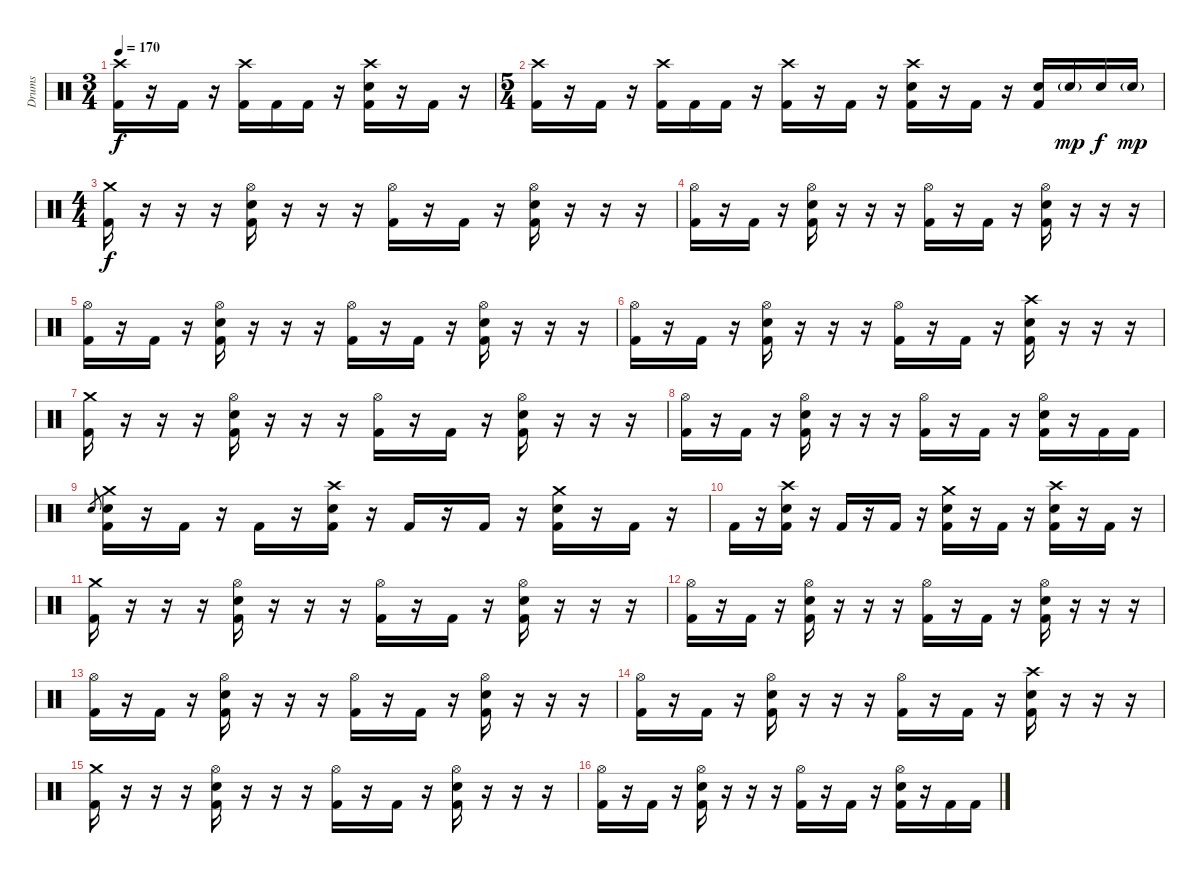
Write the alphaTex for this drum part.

\track ("Drums" "Drums") {instrument percussion}
\staff {score}
\articulation defaults
\ts (3 4)
\tempo 170
\clef neutral
\ks c
("Crash high (hit)" "Kick (hit) 2").16{dy f} r.16 "Kick (hit) 2".16 r.16 ("Crash high (hit)" "Kick (hit) 2").16 "Kick (hit) 2".16 "Kick (hit) 2".16 r.16 ("Crash high (hit)" "Electric Snare (hit)" "Kick (hit) 2").16 r.16 "Kick (hit) 2".16 r.16 |
\ts (5 4)
("Crash high (hit)" "Kick (hit) 2").16 r.16 "Kick (hit) 2".16 r.16 ("Crash high (hit)" "Kick (hit) 2").16 "Kick (hit) 2".16 "Kick (hit) 2".16 r.16 ("Crash high (hit)" "Kick (hit) 2").16 r.16 "Kick (hit) 2".16 r.16 ("Crash high (hit)" "Electric Snare (hit)" "Kick (hit) 2").16 r.16 "Kick (hit) 2".16 r.16 ("Electric Snare (hit)" "Kick (hit) 2").16 "Electric Snare (hit)"{g}.16{dy mp} "Electric Snare (hit)".16{dy f} "Electric Snare (hit)"{g}.16{dy mp} |
\ts (4 4)
\section ("" "")
("Crash medium (hit)" "Kick (hit) 2").16{dy f} r.16 r.16 r.16 ("Hi-Hat (open)" "Electric Snare (hit)" "Kick (hit) 2").16 r.16 r.16 r.16 ("Hi-Hat (open)" "Kick (hit) 2").16 r.16 "Kick (hit) 2".16 r.16 ("Hi-Hat (open)" "Electric Snare (hit)" "Kick (hit) 2").16 r.16 r.16 r.16 |
("Hi-Hat (open)" "Kick (hit) 2").16 r.16 "Kick (hit) 2".16 r.16 ("Hi-Hat (open)" "Electric Snare (hit)" "Kick (hit) 2").16 r.16 r.16 r.16 ("Hi-Hat (open)" "Kick (hit) 2").16 r.16 "Kick (hit) 2".16 r.16 ("Hi-Hat (open)" "Electric Snare (hit)" "Kick (hit) 2").16 r.16 r.16 r.16 |
("Hi-Hat (open)" "Kick (hit) 2").16 r.16 "Kick (hit) 2".16 r.16 ("Hi-Hat (open)" "Electric Snare (hit)" "Kick (hit) 2").16 r.16 r.16 r.16 ("Hi-Hat (open)" "Kick (hit) 2").16 r.16 "Kick (hit) 2".16 r.16 ("Hi-Hat (open)" "Electric Snare (hit)" "Kick (hit) 2").16 r.16 r.16 r.16 |
("Hi-Hat (open)" "Kick (hit) 2").16 r.16 "Kick (hit) 2".16 r.16 ("Hi-Hat (open)" "Electric Snare (hit)" "Kick (hit) 2").16 r.16 r.16 r.16 ("Hi-Hat (open)" "Kick (hit) 2").16 r.16 "Kick (hit) 2".16 r.16 ("Crash high (hit)" "Electric Snare (hit)" "Kick (hit) 2").16 r.16 r.16 r.16 |
("Crash medium (hit)" "Kick (hit) 2").16 r.16 r.16 r.16 ("Hi-Hat (open)" "Electric Snare (hit)" "Kick (hit) 2").16 r.16 r.16 r.16 ("Hi-Hat (open)" "Kick (hit) 2").16 r.16 "Kick (hit) 2".16 r.16 ("Hi-Hat (open)" "Electric Snare (hit)" "Kick (hit) 2").16 r.16 r.16 r.16 |
("Hi-Hat (open)" "Kick (hit) 2").16 r.16 "Kick (hit) 2".16 r.16 ("Hi-Hat (open)" "Electric Snare (hit)" "Kick (hit) 2").16 r.16 r.16 r.16 ("Hi-Hat (open)" "Kick (hit) 2").16 r.16 "Kick (hit) 2".16 r.16 ("Hi-Hat (open)" "Electric Snare (hit)" "Kick (hit) 2").16 r.16 "Kick (hit) 2".16 "Kick (hit) 2".16 |
"Electric Snare (hit)".8{gr} ("Crash medium (hit)" "Electric Snare (hit)" "Kick (hit) 2").16 r.16 "Kick (hit) 2".16 r.16 "Kick (hit) 2".16 r.16 ("Crash high (hit)" "Electric Snare (hit)" "Kick (hit) 2").16 r.16 "Kick (hit) 2".16 r.16 "Kick (hit) 2".16 r.16 ("Crash medium (hit)" "Electric Snare (hit)" "Kick (hit) 2").16 r.16 "Kick (hit) 2".16 r.16 |
"Kick (hit) 2".16 r.16 ("Crash high (hit)" "Electric Snare (hit)" "Kick (hit) 2").16 r.16 "Kick (hit) 2".16 r.16 "Kick (hit) 2".16 r.16 ("Crash medium (hit)" "Electric Snare (hit)" "Kick (hit) 2").16 r.16 "Kick (hit) 2".16 r.16 ("Crash high (hit)" "Electric Snare (hit)" "Kick (hit) 2").16 r.16 "Kick (hit) 2".16 r.16 |
("Crash medium (hit)" "Kick (hit) 2").16 r.16 r.16 r.16 ("Hi-Hat (open)" "Electric Snare (hit)" "Kick (hit) 2").16 r.16 r.16 r.16 ("Hi-Hat (open)" "Kick (hit) 2").16 r.16 "Kick (hit) 2".16 r.16 ("Hi-Hat (open)" "Electric Snare (hit)" "Kick (hit) 2").16 r.16 r.16 r.16 |
("Hi-Hat (open)" "Kick (hit) 2").16 r.16 "Kick (hit) 2".16 r.16 ("Hi-Hat (open)" "Electric Snare (hit)" "Kick (hit) 2").16 r.16 r.16 r.16 ("Hi-Hat (open)" "Kick (hit) 2").16 r.16 "Kick (hit) 2".16 r.16 ("Hi-Hat (open)" "Electric Snare (hit)" "Kick (hit) 2").16 r.16 r.16 r.16 |
("Hi-Hat (open)" "Kick (hit) 2").16 r.16 "Kick (hit) 2".16 r.16 ("Hi-Hat (open)" "Electric Snare (hit)" "Kick (hit) 2").16 r.16 r.16 r.16 ("Hi-Hat (open)" "Kick (hit) 2").16 r.16 "Kick (hit) 2".16 r.16 ("Hi-Hat (open)" "Electric Snare (hit)" "Kick (hit) 2").16 r.16 r.16 r.16 |
("Hi-Hat (open)" "Kick (hit) 2").16 r.16 "Kick (hit) 2".16 r.16 ("Hi-Hat (open)" "Electric Snare (hit)" "Kick (hit) 2").16 r.16 r.16 r.16 ("Hi-Hat (open)" "Kick (hit) 2").16 r.16 "Kick (hit) 2".16 r.16 ("Crash high (hit)" "Electric Snare (hit)" "Kick (hit) 2").16 r.16 r.16 r.16 |
("Crash medium (hit)" "Kick (hit) 2").16 r.16 r.16 r.16 ("Hi-Hat (open)" "Electric Snare (hit)" "Kick (hit) 2").16 r.16 r.16 r.16 ("Hi-Hat (open)" "Kick (hit) 2").16 r.16 "Kick (hit) 2".16 r.16 ("Hi-Hat (open)" "Electric Snare (hit)" "Kick (hit) 2").16 r.16 r.16 r.16 |
("Hi-Hat (open)" "Kick (hit) 2").16 r.16 "Kick (hit) 2".16 r.16 ("Hi-Hat (open)" "Electric Snare (hit)" "Kick (hit) 2").16 r.16 r.16 r.16 ("Hi-Hat (open)" "Kick (hit) 2").16 r.16 "Kick (hit) 2".16 r.16 ("Hi-Hat (open)" "Electric Snare (hit)" "Kick (hit) 2").16 r.16 "Kick (hit) 2".16 "Kick (hit) 2".16
